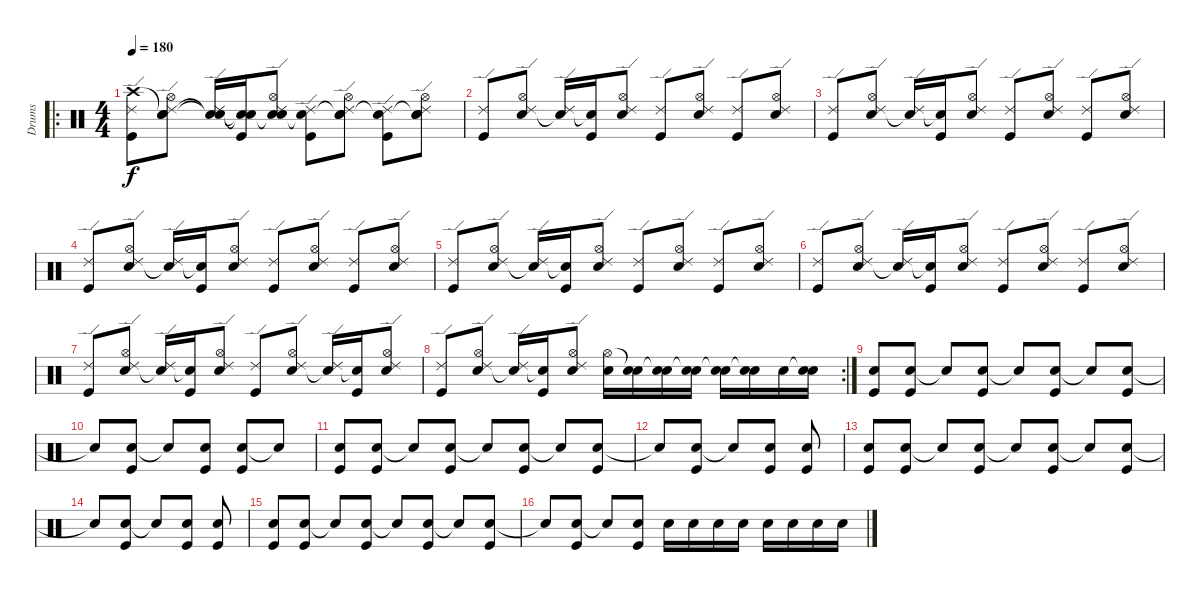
\track ("Drums" "Drums") {instrument percussion}
\staff {score}
\articulation defaults
\ro
\ts (4 4)
\tempo 180
\clef neutral
\ks c
("Crash high (hit)" "Ride (edge) 2" "Kick (hit)").8{dy f} ("Snare (hit)"{t} "Hi-Hat (open)" "Ride (edge) 2" "Electric Snare (hit)").8 ("Snare (hit)"{t} "Ride (edge) 2" "Snare (hit)"{t}).16 ("Snare (hit)"{t} "Snare (hit)"{t} "Kick (hit)").16 ("Snare (hit)"{t} "Hi-Hat (open)" "Ride (edge) 2" "Electric Snare (hit)").8 ("Snare (hit)"{t} "Ride (edge) 2" "Kick (hit)").8 ("Snare (hit)"{t} "Hi-Hat (open)" "Ride (edge) 2" "Electric Snare (hit)").8 ("Snare (hit)"{t} "Ride (edge) 2" "Kick (hit)").8 ("Snare (hit)"{t} "Hi-Hat (open)" "Ride (edge) 2" "Electric Snare (hit)").8 |
("Ride (edge) 2" "Kick (hit)").8 ("Hi-Hat (open)" "Ride (edge) 2" "Electric Snare (hit)").8 ("Ride (edge) 2" "Snare (hit)"{t}).16 ("Snare (hit)"{t} "Kick (hit)").16 ("Hi-Hat (open)" "Ride (edge) 2" "Electric Snare (hit)").8 ("Ride (edge) 2" "Kick (hit)").8 ("Hi-Hat (open)" "Ride (edge) 2" "Electric Snare (hit)").8 ("Ride (edge) 2" "Kick (hit)").8 ("Hi-Hat (open)" "Ride (edge) 2" "Electric Snare (hit)").8 |
("Ride (edge) 2" "Kick (hit)").8 ("Hi-Hat (open)" "Ride (edge) 2" "Electric Snare (hit)").8 ("Ride (edge) 2" "Snare (hit)"{t}).16 ("Snare (hit)"{t} "Kick (hit)").16 ("Hi-Hat (open)" "Ride (edge) 2" "Electric Snare (hit)").8 ("Ride (edge) 2" "Kick (hit)").8 ("Hi-Hat (open)" "Ride (edge) 2" "Electric Snare (hit)").8 ("Ride (edge) 2" "Kick (hit)").8 ("Hi-Hat (open)" "Ride (edge) 2" "Electric Snare (hit)").8 |
("Ride (edge) 2" "Kick (hit)").8 ("Hi-Hat (open)" "Ride (edge) 2" "Electric Snare (hit)").8 ("Ride (edge) 2" "Snare (hit)"{t}).16 ("Snare (hit)"{t} "Kick (hit)").16 ("Hi-Hat (open)" "Ride (edge) 2" "Electric Snare (hit)").8 ("Ride (edge) 2" "Kick (hit)").8 ("Hi-Hat (open)" "Ride (edge) 2" "Electric Snare (hit)").8 ("Ride (edge) 2" "Kick (hit)").8 ("Hi-Hat (open)" "Ride (edge) 2" "Electric Snare (hit)").8 |
("Ride (edge) 2" "Kick (hit)").8 ("Hi-Hat (open)" "Ride (edge) 2" "Electric Snare (hit)").8 ("Ride (edge) 2" "Snare (hit)"{t}).16 ("Snare (hit)"{t} "Kick (hit)").16 ("Hi-Hat (open)" "Ride (edge) 2" "Electric Snare (hit)").8 ("Ride (edge) 2" "Kick (hit)").8 ("Hi-Hat (open)" "Ride (edge) 2" "Electric Snare (hit)").8 ("Ride (edge) 2" "Kick (hit)").8 ("Hi-Hat (open)" "Ride (edge) 2" "Electric Snare (hit)").8 |
("Ride (edge) 2" "Kick (hit)").8 ("Hi-Hat (open)" "Ride (edge) 2" "Electric Snare (hit)").8 ("Ride (edge) 2" "Snare (hit)"{t}).16 ("Snare (hit)"{t} "Kick (hit)").16 ("Hi-Hat (open)" "Ride (edge) 2" "Electric Snare (hit)").8 ("Ride (edge) 2" "Kick (hit)").8 ("Hi-Hat (open)" "Ride (edge) 2" "Electric Snare (hit)").8 ("Ride (edge) 2" "Kick (hit)").8 ("Hi-Hat (open)" "Ride (edge) 2" "Electric Snare (hit)").8 |
("Ride (edge) 2" "Kick (hit)").8 ("Hi-Hat (open)" "Ride (edge) 2" "Electric Snare (hit)").8 ("Ride (edge) 2" "Snare (hit)"{t}).16 ("Snare (hit)"{t} "Kick (hit)").16 ("Hi-Hat (open)" "Ride (edge) 2" "Electric Snare (hit)").8 ("Ride (edge) 2" "Kick (hit)").8 ("Hi-Hat (open)" "Ride (edge) 2" "Electric Snare (hit)").8 ("Ride (edge) 2" "Snare (hit)"{t}).16 ("Snare (hit)"{t} "Kick (hit)").16 ("Hi-Hat (open)" "Ride (edge) 2" "Electric Snare (hit)").8 |
\rc 2
("Ride (edge) 2" "Kick (hit)").8 ("Hi-Hat (open)" "Ride (edge) 2" "Electric Snare (hit)").8 ("Ride (edge) 2" "Snare (hit)"{t}).16 ("Snare (hit)"{t} "Kick (hit)").16 ("Hi-Hat (open)" "Ride (edge) 2" "Electric Snare (hit)").8 ("Hi-Hat (open)" "Electric Snare (hit)").16 ("Snare (hit)"{t} "Electric Snare (hit)").16 ("Snare (hit)"{t} "Electric Snare (hit)").16 ("Snare (hit)"{t} "Electric Snare (hit)").16 ("Snare (hit)"{t} "Electric Snare (hit)").16 ("Snare (hit)"{t} "Electric Snare (hit)").16 "Electric Snare (hit)".16 ("Snare (hit)"{t} "Electric Snare (hit)").16 |
("Electric Snare (hit)" "Kick (hit)").8 ("Electric Snare (hit)" "Kick (hit)").8 "Snare (hit)"{t}.8 ("Electric Snare (hit)" "Kick (hit)").8 "Snare (hit)"{t}.8 ("Electric Snare (hit)" "Kick (hit)").8 "Electric Snare (hit)"{t}.8 ("Electric Snare (hit)" "Kick (hit)").8 |
"Snare (hit)"{t}.8 ("Electric Snare (hit)" "Kick (hit)").8 "Snare (hit)"{t}.8 ("Electric Snare (hit)" "Kick (hit)").8 ("Electric Snare (hit)" "Kick (hit)").8 "Snare (hit)"{t}.8 |
("Electric Snare (hit)" "Kick (hit)").8 ("Electric Snare (hit)" "Kick (hit)").8 "Snare (hit)"{t}.8 ("Electric Snare (hit)" "Kick (hit)").8 "Snare (hit)"{t}.8 ("Electric Snare (hit)" "Kick (hit)").8 "Snare (hit)"{t}.8 ("Electric Snare (hit)" "Kick (hit)").8 |
"Snare (hit)"{t}.8 ("Electric Snare (hit)" "Kick (hit)").8 "Snare (hit)"{t}.8 ("Electric Snare (hit)" "Kick (hit)").8 ("Electric Snare (hit)" "Kick (hit)").8 |
("Electric Snare (hit)" "Kick (hit)").8 ("Electric Snare (hit)" "Kick (hit)").8 "Electric Snare (hit)"{t}.8 ("Electric Snare (hit)" "Kick (hit)").8 "Snare (hit)"{t}.8 ("Electric Snare (hit)" "Kick (hit)").8 "Snare (hit)"{t}.8 ("Electric Snare (hit)" "Kick (hit)").8 |
"Snare (hit)"{t}.8 ("Electric Snare (hit)" "Kick (hit)").8 "Snare (hit)"{t}.8 ("Electric Snare (hit)" "Kick (hit)").8 ("Electric Snare (hit)" "Kick (hit)").8 |
("Electric Snare (hit)" "Kick (hit)").8 ("Electric Snare (hit)" "Kick (hit)").8 "Snare (hit)"{t}.8 ("Electric Snare (hit)" "Kick (hit)").8 "Snare (hit)"{t}.8 ("Electric Snare (hit)" "Kick (hit)").8 "Snare (hit)"{t}.8 ("Electric Snare (hit)" "Kick (hit)").8 |
"Snare (hit)"{t}.8 ("Electric Snare (hit)" "Kick (hit)").8 "Snare (hit)"{t}.8 ("Electric Snare (hit)" "Kick (hit)").8 "Electric Snare (hit)".16 "Electric Snare (hit)".16 "Electric Snare (hit)".16 "Electric Snare (hit)".16 "Electric Snare (hit)".16 "Electric Snare (hit)".16 "Electric Snare (hit)".16 "Electric Snare (hit)".16
